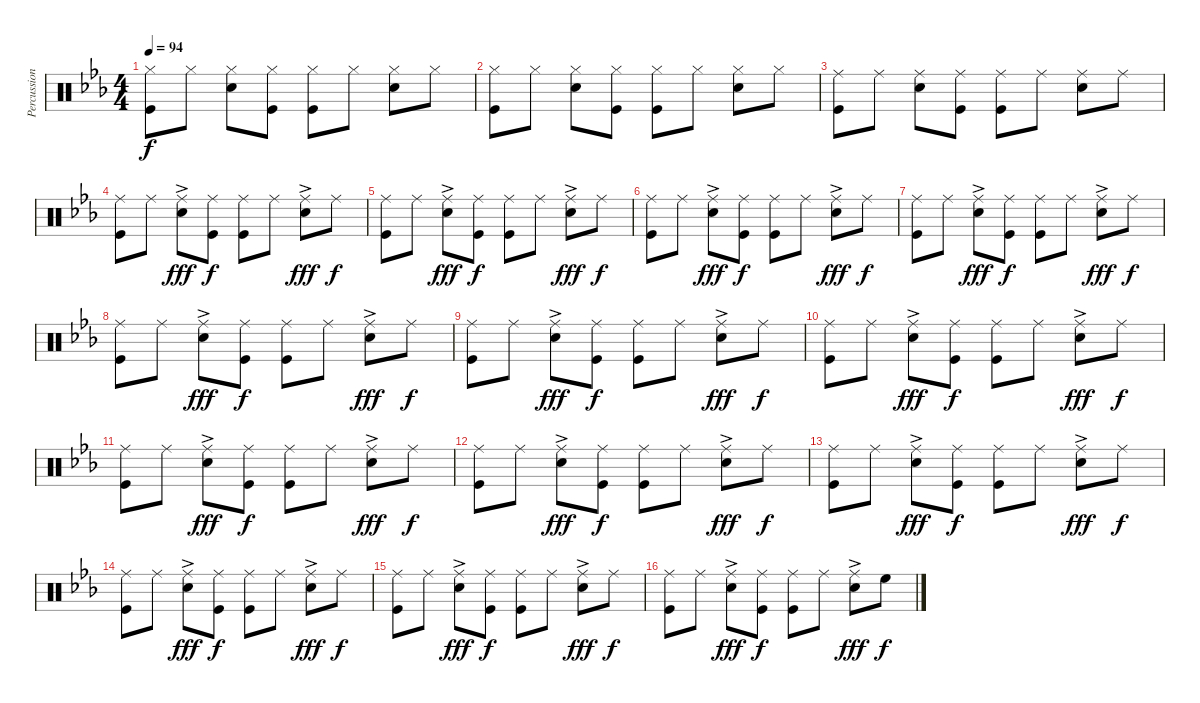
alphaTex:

\track ("Percussion" "Percussion") {instrument percussion}
\staff {score}
\articulation defaults
\ts (4 4)
\tempo 94
\clef neutral
\ks eb
("Hi-Hat (closed)" "Kick (hit)").8{dy f} "Hi-Hat (closed)".8 ("Hi-Hat (closed)" "Snare (hit) 2").8 ("Hi-Hat (closed)" "Kick (hit)").8 ("Hi-Hat (closed)" "Kick (hit)").8 "Hi-Hat (closed)".8 ("Hi-Hat (closed)" "Snare (hit) 2").8 "Hi-Hat (closed)".8 |
("Hi-Hat (closed)" "Kick (hit)").8 "Hi-Hat (closed)".8 ("Hi-Hat (closed)" "Snare (hit) 2").8 ("Hi-Hat (closed)" "Kick (hit)").8 ("Hi-Hat (closed)" "Kick (hit)").8 "Hi-Hat (closed)".8 ("Hi-Hat (closed)" "Snare (hit) 2").8 "Hi-Hat (closed)".8 |
("Ride (middle)" "Kick (hit)").8 "Ride (middle)".8 ("Ride (middle)" "Snare (hit) 2").8 ("Ride (middle)" "Kick (hit)").8 ("Ride (middle)" "Kick (hit)").8 "Ride (middle)".8 ("Ride (middle)" "Snare (hit) 2").8 "Ride (middle)".8 |
("Ride (middle)" "Kick (hit)").8 "Ride (middle)".8 ("Ride (middle)"{ac} "Snare (hit) 2"{ac}).8{dy fff} ("Ride (middle)" "Kick (hit)").8{dy f} ("Ride (middle)" "Kick (hit)").8 "Ride (middle)".8 ("Ride (middle)"{ac} "Snare (hit) 2"{ac}).8{dy fff} "Ride (middle)".8{dy f} |
("Ride (middle)" "Kick (hit)").8 "Ride (middle)".8 ("Ride (middle)"{ac} "Snare (hit) 2"{ac}).8{dy fff} ("Ride (middle)" "Kick (hit)").8{dy f} ("Ride (middle)" "Kick (hit)").8 "Ride (middle)".8 ("Ride (middle)"{ac} "Snare (hit) 2"{ac}).8{dy fff} "Ride (middle)".8{dy f} |
("Ride (middle)" "Kick (hit)").8 "Ride (middle)".8 ("Ride (middle)"{ac} "Snare (hit) 2"{ac}).8{dy fff} ("Ride (middle)" "Kick (hit)").8{dy f} ("Ride (middle)" "Kick (hit)").8 "Ride (middle)".8 ("Ride (middle)"{ac} "Snare (hit) 2"{ac}).8{dy fff} "Ride (middle)".8{dy f} |
("Ride (middle)" "Kick (hit)").8 "Ride (middle)".8 ("Ride (middle)"{ac} "Snare (hit) 2"{ac}).8{dy fff} ("Ride (middle)" "Kick (hit)").8{dy f} ("Ride (middle)" "Kick (hit)").8 "Ride (middle)".8 ("Ride (middle)"{ac} "Snare (hit) 2"{ac}).8{dy fff} "Ride (middle)".8{dy f} |
("Ride (middle)" "Kick (hit)").8 "Ride (middle)".8 ("Ride (middle)"{ac} "Snare (hit) 2"{ac}).8{dy fff} ("Ride (middle)" "Kick (hit)").8{dy f} ("Ride (middle)" "Kick (hit)").8 "Ride (middle)".8 ("Ride (middle)"{ac} "Snare (hit) 2"{ac}).8{dy fff} "Ride (middle)".8{dy f} |
("Ride (middle)" "Kick (hit)").8 "Ride (middle)".8 ("Ride (middle)"{ac} "Snare (hit) 2"{ac}).8{dy fff} ("Ride (middle)" "Kick (hit)").8{dy f} ("Ride (middle)" "Kick (hit)").8 "Ride (middle)".8 ("Ride (middle)"{ac} "Snare (hit) 2"{ac}).8{dy fff} "Ride (middle)".8{dy f} |
("Ride (middle)" "Kick (hit)").8 "Ride (middle)".8 ("Ride (middle)"{ac} "Snare (hit) 2"{ac}).8{dy fff} ("Ride (middle)" "Kick (hit)").8{dy f} ("Ride (middle)" "Kick (hit)").8 "Ride (middle)".8 ("Ride (middle)"{ac} "Snare (hit) 2"{ac}).8{dy fff} "Ride (middle)".8{dy f} |
("Ride (middle)" "Kick (hit)").8 "Ride (middle)".8 ("Ride (middle)"{ac} "Snare (hit) 2"{ac}).8{dy fff} ("Ride (middle)" "Kick (hit)").8{dy f} ("Ride (middle)" "Kick (hit)").8 "Ride (middle)".8 ("Ride (middle)"{ac} "Snare (hit) 2"{ac}).8{dy fff} "Ride (middle)".8{dy f} |
("Ride (middle)" "Kick (hit)").8 "Ride (middle)".8 ("Ride (middle)"{ac} "Snare (hit) 2"{ac}).8{dy fff} ("Ride (middle)" "Kick (hit)").8{dy f} ("Ride (middle)" "Kick (hit)").8 "Ride (middle)".8 ("Ride (middle)"{ac} "Snare (hit) 2"{ac}).8{dy fff} "Ride (middle)".8{dy f} |
("Ride (middle)" "Kick (hit)").8 "Ride (middle)".8 ("Ride (middle)"{ac} "Snare (hit) 2"{ac}).8{dy fff} ("Ride (middle)" "Kick (hit)").8{dy f} ("Ride (middle)" "Kick (hit)").8 "Ride (middle)".8 ("Ride (middle)"{ac} "Snare (hit) 2"{ac}).8{dy fff} "Ride (middle)".8{dy f} |
("Ride (middle)" "Kick (hit)").8 "Ride (middle)".8 ("Ride (middle)"{ac} "Snare (hit) 2"{ac}).8{dy fff} ("Ride (middle)" "Kick (hit)").8{dy f} ("Ride (middle)" "Kick (hit)").8 "Ride (middle)".8 ("Ride (middle)"{ac} "Snare (hit) 2"{ac}).8{dy fff} "Ride (middle)".8{dy f} |
("Ride (middle)" "Kick (hit)").8 "Ride (middle)".8 ("Ride (middle)"{ac} "Snare (hit) 2"{ac}).8{dy fff} ("Ride (middle)" "Kick (hit)").8{dy f} ("Ride (middle)" "Kick (hit)").8 "Ride (middle)".8 ("Ride (middle)"{ac} "Snare (hit) 2"{ac}).8{dy fff} "Ride (middle)".8{dy f} |
("Ride (middle)" "Kick (hit)").8 "Ride (middle)".8 ("Ride (middle)"{ac} "Snare (hit) 2"{ac}).8{dy fff} ("Ride (middle)" "Kick (hit)").8{dy f} ("Ride (middle)" "Kick (hit)").8 "Ride (middle)".8 ("Ride (middle)"{ac} "Snare (hit) 2"{ac}).8{dy fff} "High Floor Tom (hit)".8{dy f}
